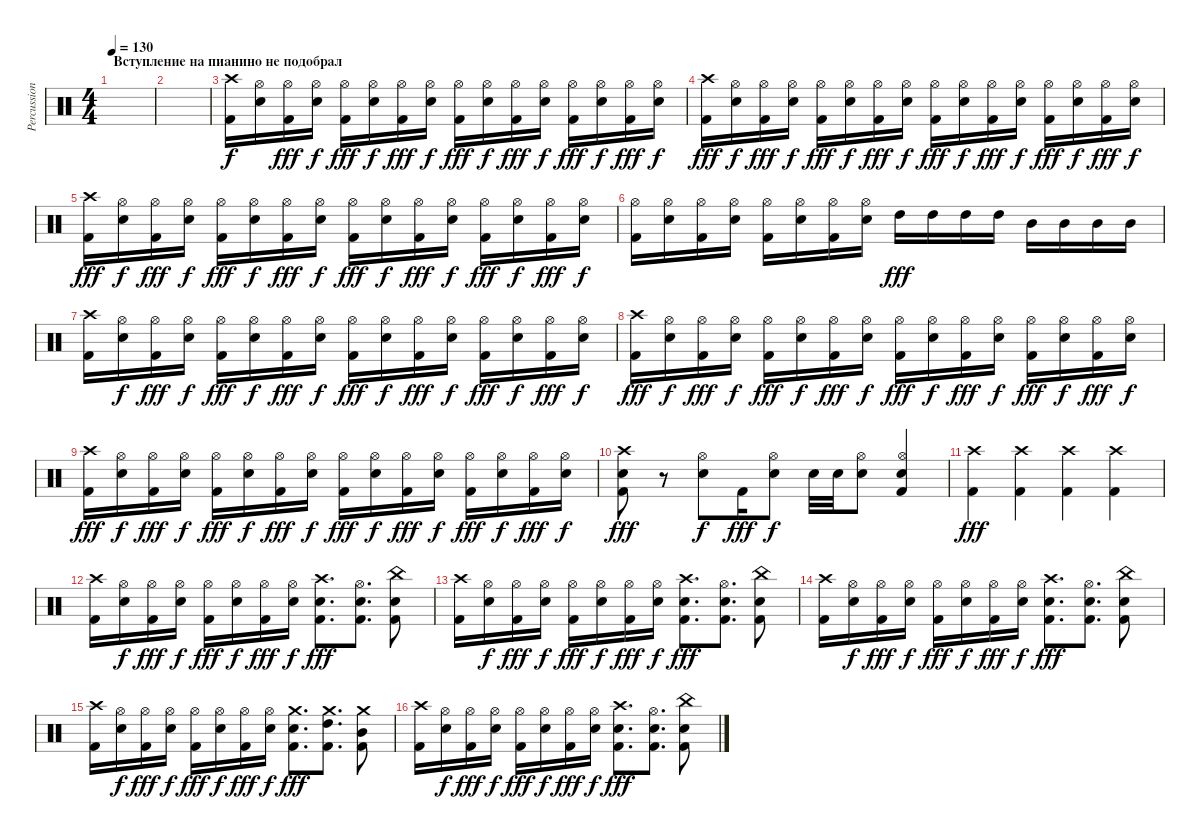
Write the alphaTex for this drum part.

\track ("Percussion" "Percussion") {instrument percussion}
\staff {score}
\articulation defaults
\ts (4 4)
\section ("" "Вступление на пианино не подобрал")
\tempo 130
\clef neutral
\ks c
|
|
("Crash high (hit)" "Kick (hit) 2").16 ("Hi-Hat (open)" "Electric Snare (hit)").16{dy f} ("Hi-Hat (open)" "Kick (hit) 2").16{dy fff} ("Hi-Hat (open)" "Electric Snare (hit)").16{dy f} ("Hi-Hat (open)" "Kick (hit) 2").16{dy fff} ("Hi-Hat (open)" "Electric Snare (hit)").16{dy f} ("Hi-Hat (open)" "Kick (hit) 2").16{dy fff} ("Hi-Hat (open)" "Electric Snare (hit)").16{dy f} ("Hi-Hat (open)" "Kick (hit) 2").16{dy fff} ("Hi-Hat (open)" "Electric Snare (hit)").16{dy f} ("Hi-Hat (open)" "Kick (hit) 2").16{dy fff} ("Hi-Hat (open)" "Electric Snare (hit)").16{dy f} ("Hi-Hat (open)" "Kick (hit) 2").16{dy fff} ("Hi-Hat (open)" "Electric Snare (hit)").16{dy f} ("Hi-Hat (open)" "Kick (hit) 2").16{dy fff} ("Hi-Hat (open)" "Electric Snare (hit)").16{dy f} |
("Crash high (hit)" "Kick (hit) 2").16{dy fff} ("Hi-Hat (open)" "Electric Snare (hit)").16{dy f} ("Hi-Hat (open)" "Kick (hit) 2").16{dy fff} ("Hi-Hat (open)" "Electric Snare (hit)").16{dy f} ("Hi-Hat (open)" "Kick (hit) 2").16{dy fff} ("Hi-Hat (open)" "Electric Snare (hit)").16{dy f} ("Hi-Hat (open)" "Kick (hit) 2").16{dy fff} ("Hi-Hat (open)" "Electric Snare (hit)").16{dy f} ("Hi-Hat (open)" "Kick (hit) 2").16{dy fff} ("Hi-Hat (open)" "Electric Snare (hit)").16{dy f} ("Hi-Hat (open)" "Kick (hit) 2").16{dy fff} ("Hi-Hat (open)" "Electric Snare (hit)").16{dy f} ("Hi-Hat (open)" "Kick (hit) 2").16{dy fff} ("Hi-Hat (open)" "Electric Snare (hit)").16{dy f} ("Hi-Hat (open)" "Kick (hit) 2").16{dy fff} ("Hi-Hat (open)" "Electric Snare (hit)").16{dy f} |
("Crash high (hit)" "Kick (hit) 2").16{dy fff} ("Hi-Hat (open)" "Electric Snare (hit)").16{dy f} ("Hi-Hat (open)" "Kick (hit) 2").16{dy fff} ("Hi-Hat (open)" "Electric Snare (hit)").16{dy f} ("Hi-Hat (open)" "Kick (hit) 2").16{dy fff} ("Hi-Hat (open)" "Electric Snare (hit)").16{dy f} ("Hi-Hat (open)" "Kick (hit) 2").16{dy fff} ("Hi-Hat (open)" "Electric Snare (hit)").16{dy f} ("Hi-Hat (open)" "Kick (hit) 2").16{dy fff} ("Hi-Hat (open)" "Electric Snare (hit)").16{dy f} ("Hi-Hat (open)" "Kick (hit) 2").16{dy fff} ("Hi-Hat (open)" "Electric Snare (hit)").16{dy f} ("Hi-Hat (open)" "Kick (hit) 2").16{dy fff} ("Hi-Hat (open)" "Electric Snare (hit)").16{dy f} ("Hi-Hat (open)" "Kick (hit) 2").16{dy fff} ("Hi-Hat (open)" "Electric Snare (hit)").16{dy f} |
("Hi-Hat (open)" "Kick (hit) 2").16 ("Hi-Hat (open)" "Electric Snare (hit)").16 ("Hi-Hat (open)" "Kick (hit) 2").16 ("Hi-Hat (open)" "Electric Snare (hit)").16 ("Hi-Hat (open)" "Kick (hit) 2").16 ("Hi-Hat (open)" "Electric Snare (hit)").16 ("Hi-Hat (open)" "Kick (hit) 2").16 ("Hi-Hat (open)" "Electric Snare (hit)").16 "High Tom (hit)".16{dy fff} "High Tom (hit)".16 "High Tom (hit)".16 "High Tom (hit)".16 "Mid Tom (hit)".16 "Mid Tom (hit)".16 "Mid Tom (hit)".16 "Mid Tom (hit)".16 |
("Crash high (hit)" "Kick (hit) 2").16 ("Hi-Hat (open)" "Electric Snare (hit)").16{dy f} ("Hi-Hat (open)" "Kick (hit) 2").16{dy fff} ("Hi-Hat (open)" "Electric Snare (hit)").16{dy f} ("Hi-Hat (open)" "Kick (hit) 2").16{dy fff} ("Hi-Hat (open)" "Electric Snare (hit)").16{dy f} ("Hi-Hat (open)" "Kick (hit) 2").16{dy fff} ("Hi-Hat (open)" "Electric Snare (hit)").16{dy f} ("Hi-Hat (open)" "Kick (hit) 2").16{dy fff} ("Hi-Hat (open)" "Electric Snare (hit)").16{dy f} ("Hi-Hat (open)" "Kick (hit) 2").16{dy fff} ("Hi-Hat (open)" "Electric Snare (hit)").16{dy f} ("Hi-Hat (open)" "Kick (hit) 2").16{dy fff} ("Hi-Hat (open)" "Electric Snare (hit)").16{dy f} ("Hi-Hat (open)" "Kick (hit) 2").16{dy fff} ("Hi-Hat (open)" "Electric Snare (hit)").16{dy f} |
("Crash high (hit)" "Kick (hit) 2").16{dy fff} ("Hi-Hat (open)" "Electric Snare (hit)").16{dy f} ("Hi-Hat (open)" "Kick (hit) 2").16{dy fff} ("Hi-Hat (open)" "Electric Snare (hit)").16{dy f} ("Hi-Hat (open)" "Kick (hit) 2").16{dy fff} ("Hi-Hat (open)" "Electric Snare (hit)").16{dy f} ("Hi-Hat (open)" "Kick (hit) 2").16{dy fff} ("Hi-Hat (open)" "Electric Snare (hit)").16{dy f} ("Hi-Hat (open)" "Kick (hit) 2").16{dy fff} ("Hi-Hat (open)" "Electric Snare (hit)").16{dy f} ("Hi-Hat (open)" "Kick (hit) 2").16{dy fff} ("Hi-Hat (open)" "Electric Snare (hit)").16{dy f} ("Hi-Hat (open)" "Kick (hit) 2").16{dy fff} ("Hi-Hat (open)" "Electric Snare (hit)").16{dy f} ("Hi-Hat (open)" "Kick (hit) 2").16{dy fff} ("Hi-Hat (open)" "Electric Snare (hit)").16{dy f} |
("Crash high (hit)" "Kick (hit) 2").16{dy fff} ("Hi-Hat (open)" "Electric Snare (hit)").16{dy f} ("Hi-Hat (open)" "Kick (hit) 2").16{dy fff} ("Hi-Hat (open)" "Electric Snare (hit)").16{dy f} ("Hi-Hat (open)" "Kick (hit) 2").16{dy fff} ("Hi-Hat (open)" "Electric Snare (hit)").16{dy f} ("Hi-Hat (open)" "Kick (hit) 2").16{dy fff} ("Hi-Hat (open)" "Electric Snare (hit)").16{dy f} ("Hi-Hat (open)" "Kick (hit) 2").16{dy fff} ("Hi-Hat (open)" "Electric Snare (hit)").16{dy f} ("Hi-Hat (open)" "Kick (hit) 2").16{dy fff} ("Hi-Hat (open)" "Electric Snare (hit)").16{dy f} ("Hi-Hat (open)" "Kick (hit) 2").16{dy fff} ("Hi-Hat (open)" "Electric Snare (hit)").16{dy f} ("Hi-Hat (open)" "Kick (hit) 2").16{dy fff} ("Hi-Hat (open)" "Electric Snare (hit)").16{dy f} |
("Crash high (hit)" "Electric Snare (hit)" "Kick (hit) 2").8{dy fff} r.8 ("Hi-Hat (open)" "Electric Snare (hit)").8{dy f} "Kick (hit) 2".16{dy fff} ("Hi-Hat (open)" "Electric Snare (hit)").8{dy f} "Electric Snare (hit)".32 "Electric Snare (hit)".32 ("Hi-Hat (open)" "Electric Snare (hit)").8 ("Hi-Hat (open)" "Electric Snare (hit)" "Kick (hit) 2").4 |
("Crash high (hit)" "Kick (hit) 2").4{dy fff} ("Crash high (hit)" "Kick (hit) 2").4 ("Crash high (hit)" "Kick (hit) 2").4 ("Crash high (hit)" "Kick (hit) 2").4 |
("Crash high (hit)" "Kick (hit) 2").16 ("Hi-Hat (open)" "Electric Snare (hit)").16{dy f} ("Hi-Hat (open)" "Kick (hit) 2").16{dy fff} ("Hi-Hat (open)" "Electric Snare (hit)").16{dy f} ("Hi-Hat (open)" "Kick (hit) 2").16{dy fff} ("Hi-Hat (open)" "Electric Snare (hit)").16{dy f} ("Hi-Hat (open)" "Kick (hit) 2").16{dy fff} ("Hi-Hat (open)" "Electric Snare (hit)").16{dy f} ("Crash high (hit)" "Electric Snare (hit)" "Kick (hit) 2").8{d dy fff} ("Hi-Hat (open)" "Electric Snare (hit)" "Kick (hit) 2").8{d} ("China (hit)" "Electric Snare (hit)" "Kick (hit) 2").8 |
("Crash high (hit)" "Kick (hit) 2").16 ("Hi-Hat (open)" "Electric Snare (hit)").16{dy f} ("Hi-Hat (open)" "Kick (hit) 2").16{dy fff} ("Hi-Hat (open)" "Electric Snare (hit)").16{dy f} ("Hi-Hat (open)" "Kick (hit) 2").16{dy fff} ("Hi-Hat (open)" "Electric Snare (hit)").16{dy f} ("Hi-Hat (open)" "Kick (hit) 2").16{dy fff} ("Hi-Hat (open)" "Electric Snare (hit)").16{dy f} ("Crash high (hit)" "Electric Snare (hit)" "Kick (hit) 2").8{d dy fff} ("Hi-Hat (open)" "Electric Snare (hit)" "Kick (hit) 2").8{d} ("China (hit)" "Electric Snare (hit)" "Kick (hit) 2").8 |
("Crash high (hit)" "Kick (hit) 2").16 ("Hi-Hat (open)" "Electric Snare (hit)").16{dy f} ("Hi-Hat (open)" "Kick (hit) 2").16{dy fff} ("Hi-Hat (open)" "Electric Snare (hit)").16{dy f} ("Hi-Hat (open)" "Kick (hit) 2").16{dy fff} ("Hi-Hat (open)" "Electric Snare (hit)").16{dy f} ("Hi-Hat (open)" "Kick (hit) 2").16{dy fff} ("Hi-Hat (open)" "Electric Snare (hit)").16{dy f} ("Crash high (hit)" "Electric Snare (hit)" "Kick (hit) 2").8{d dy fff} ("Hi-Hat (open)" "Electric Snare (hit)" "Kick (hit) 2").8{d} ("China (hit)" "Electric Snare (hit)" "Kick (hit) 2").8 |
("Crash high (hit)" "Kick (hit) 2").16 ("Hi-Hat (open)" "Electric Snare (hit)").16{dy f} ("Hi-Hat (open)" "Kick (hit) 2").16{dy fff} ("Hi-Hat (open)" "Electric Snare (hit)").16{dy f} ("Hi-Hat (open)" "Kick (hit) 2").16{dy fff} ("Hi-Hat (open)" "Electric Snare (hit)").16{dy f} ("Hi-Hat (open)" "Kick (hit) 2").16{dy fff} ("Hi-Hat (open)" "Electric Snare (hit)").16{dy f} ("Crash medium (hit)" "Electric Snare (hit)" "Kick (hit) 2").8{d dy fff} ("Crash medium (hit)" "High Tom (hit)" "Kick (hit) 2").8{d} ("Crash medium (hit)" "Mid Tom (hit)" "Kick (hit) 2").8 |
("Crash high (hit)" "Kick (hit) 2").16 ("Hi-Hat (open)" "Electric Snare (hit)").16{dy f} ("Hi-Hat (open)" "Kick (hit) 2").16{dy fff} ("Hi-Hat (open)" "Electric Snare (hit)").16{dy f} ("Hi-Hat (open)" "Kick (hit) 2").16{dy fff} ("Hi-Hat (open)" "Electric Snare (hit)").16{dy f} ("Hi-Hat (open)" "Kick (hit) 2").16{dy fff} ("Hi-Hat (open)" "Electric Snare (hit)").16{dy f} ("Crash high (hit)" "Electric Snare (hit)" "Kick (hit) 2").8{d dy fff} ("Hi-Hat (open)" "Electric Snare (hit)" "Kick (hit) 2").8{d} ("China (hit)" "Electric Snare (hit)" "Kick (hit) 2").8
